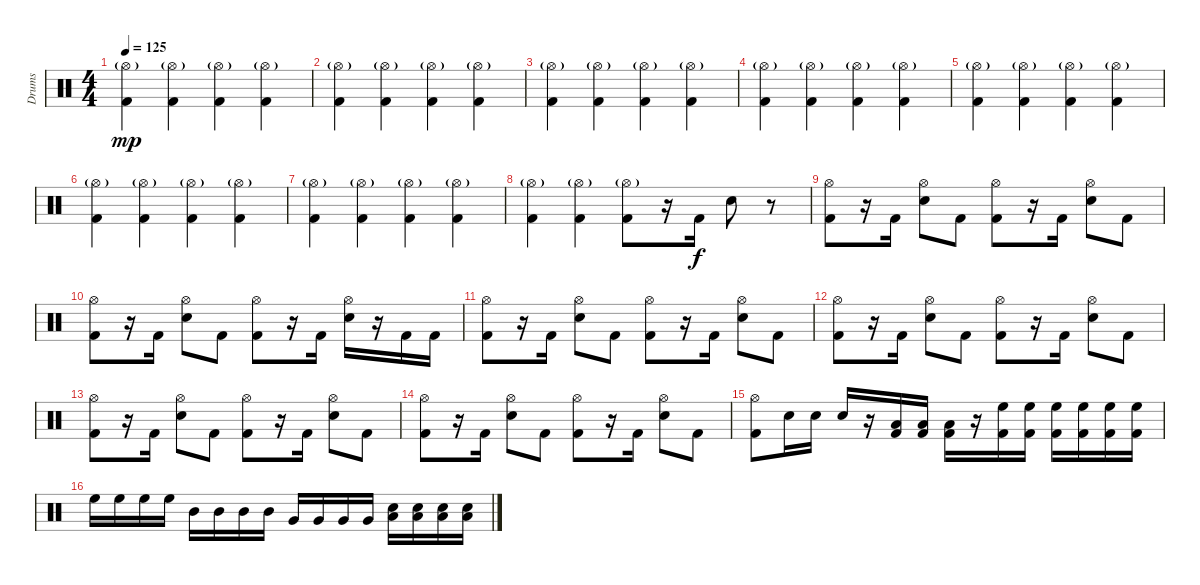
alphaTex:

\track ("Drums" "Drums") {instrument percussion}
\staff {score}
\articulation defaults
\ts (4 4)
\tempo 125
\clef neutral
\ks c
("Hi-Hat (open)"{g} "Kick (hit) 2").4{dy mp} ("Hi-Hat (open)"{g} "Kick (hit) 2").4 ("Hi-Hat (open)"{g} "Kick (hit) 2").4 ("Hi-Hat (open)"{g} "Kick (hit) 2").4 |
("Hi-Hat (open)"{g} "Kick (hit) 2").4 ("Hi-Hat (open)"{g} "Kick (hit) 2").4 ("Hi-Hat (open)"{g} "Kick (hit) 2").4 ("Hi-Hat (open)"{g} "Kick (hit) 2").4 |
("Hi-Hat (open)"{g} "Kick (hit) 2").4 ("Hi-Hat (open)"{g} "Kick (hit) 2").4 ("Hi-Hat (open)"{g} "Kick (hit) 2").4 ("Hi-Hat (open)"{g} "Kick (hit) 2").4 |
("Hi-Hat (open)"{g} "Kick (hit) 2").4 ("Hi-Hat (open)"{g} "Kick (hit) 2").4 ("Hi-Hat (open)"{g} "Kick (hit) 2").4 ("Hi-Hat (open)"{g} "Kick (hit) 2").4 |
("Hi-Hat (open)"{g} "Kick (hit) 2").4 ("Hi-Hat (open)"{g} "Kick (hit) 2").4 ("Hi-Hat (open)"{g} "Kick (hit) 2").4 ("Hi-Hat (open)"{g} "Kick (hit) 2").4 |
("Hi-Hat (open)"{g} "Kick (hit) 2").4 ("Hi-Hat (open)"{g} "Kick (hit) 2").4 ("Hi-Hat (open)"{g} "Kick (hit) 2").4 ("Hi-Hat (open)"{g} "Kick (hit) 2").4 |
("Hi-Hat (open)"{g} "Kick (hit) 2").4 ("Hi-Hat (open)"{g} "Kick (hit) 2").4 ("Hi-Hat (open)"{g} "Kick (hit) 2").4 ("Hi-Hat (open)"{g} "Kick (hit) 2").4 |
("Hi-Hat (open)"{g} "Kick (hit) 2").4 ("Hi-Hat (open)"{g} "Kick (hit) 2").4 ("Hi-Hat (open)"{g} "Kick (hit) 2").8 r.16 "Kick (hit) 2".16{dy f} "Snare (hit) 2".8 r.8 |
("Hi-Hat (open)" "Kick (hit) 2").8 r.16 "Kick (hit) 2".16 ("Hi-Hat (open)" "Snare (hit) 2").8 "Kick (hit) 2".8 ("Hi-Hat (open)" "Kick (hit) 2").8 r.16 "Kick (hit) 2".16 ("Hi-Hat (open)" "Snare (hit) 2").8 "Kick (hit) 2".8 |
("Hi-Hat (open)" "Kick (hit) 2").8 r.16 "Kick (hit) 2".16 ("Hi-Hat (open)" "Snare (hit) 2").8 "Kick (hit) 2".8 ("Hi-Hat (open)" "Kick (hit) 2").8 r.16 "Kick (hit) 2".16 ("Hi-Hat (open)" "Snare (hit) 2").16 r.16 "Kick (hit) 2".16 "Kick (hit) 2".16 |
("Hi-Hat (open)" "Kick (hit) 2").8 r.16 "Kick (hit) 2".16 ("Hi-Hat (open)" "Snare (hit) 2").8 "Kick (hit) 2".8 ("Hi-Hat (open)" "Kick (hit) 2").8 r.16 "Kick (hit) 2".16 ("Hi-Hat (open)" "Snare (hit) 2").8 "Kick (hit) 2".8 |
("Hi-Hat (open)" "Kick (hit) 2").8 r.16 "Kick (hit) 2".16 ("Hi-Hat (open)" "Snare (hit) 2").8 "Kick (hit) 2".8 ("Hi-Hat (open)" "Kick (hit) 2").8 r.16 "Kick (hit) 2".16 ("Hi-Hat (open)" "Snare (hit) 2").8 "Kick (hit) 2".8 |
("Hi-Hat (open)" "Kick (hit) 2").8 r.16 "Kick (hit) 2".16 ("Hi-Hat (open)" "Snare (hit) 2").8 "Kick (hit) 2".8 ("Hi-Hat (open)" "Kick (hit) 2").8 r.16 "Kick (hit) 2".16 ("Hi-Hat (open)" "Snare (hit) 2").8 "Kick (hit) 2".8 |
("Hi-Hat (open)" "Kick (hit) 2").8 r.16 "Kick (hit) 2".16 ("Hi-Hat (open)" "Snare (hit) 2").8 "Kick (hit) 2".8 ("Hi-Hat (open)" "Kick (hit) 2").8 r.16 "Kick (hit) 2".16 ("Hi-Hat (open)" "Snare (hit) 2").8 "Kick (hit) 2".8 |
("Hi-Hat (open)" "Kick (hit) 2").8 "Snare (hit) 2".16 "Snare (hit) 2".16 "Snare (hit) 2".16 r.16 ("Kick (hit) 2" "Low Floor Tom (hit)").16 ("Kick (hit) 2" "Low Floor Tom (hit)").16 ("Kick (hit) 2" "Low Floor Tom (hit)").16 r.16 ("Kick (hit) 2" "High Floor Tom (hit)").16 ("Kick (hit) 2" "High Floor Tom (hit)").16 ("Kick (hit) 2" "High Floor Tom (hit)").16 ("Kick (hit) 2" "High Floor Tom (hit)").16 ("Kick (hit) 2" "High Floor Tom (hit)").16 ("Kick (hit) 2" "High Floor Tom (hit)").16 |
"High Floor Tom (hit)".16 "High Floor Tom (hit)".16 "High Floor Tom (hit)".16 "High Floor Tom (hit)".16 "Mid Tom (hit)".16 "Mid Tom (hit)".16 "Mid Tom (hit)".16 "Mid Tom (hit)".16 "Very Low Tom (hit)".16 "Very Low Tom (hit)".16 "Very Low Tom (hit)".16 "Very Low Tom (hit)".16 ("Snare (hit) 2" "Low Floor Tom (hit)").16 ("Snare (hit) 2" "Low Floor Tom (hit)").16 ("Snare (hit) 2" "Low Floor Tom (hit)").16 ("Snare (hit) 2" "Low Floor Tom (hit)").16
